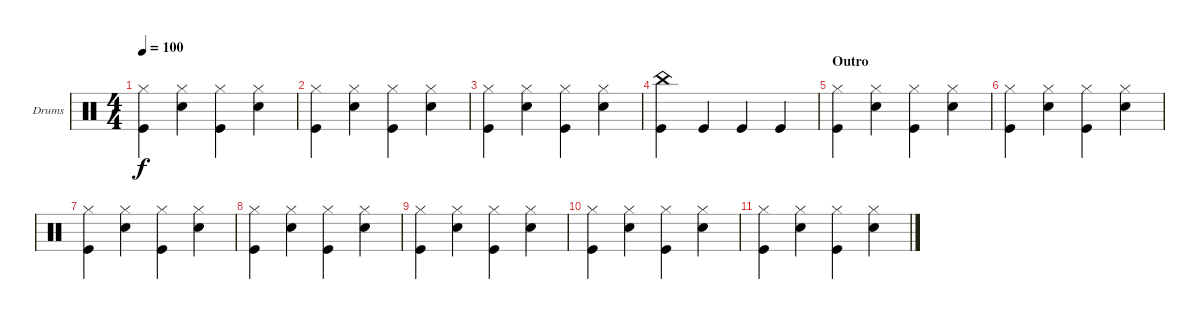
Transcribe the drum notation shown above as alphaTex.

\defaultSystemsLayout 4
\bracketExtendMode groupsimilarinstruments
\firstSystemTrackNameOrientation horizontal
\otherSystemsTrackNameOrientation horizontal
\track ("Drumkit" "Drums") {instrument percussion}
\staff {score}
\articulation defaults
\ts (4 4)
\tempo 100
\clef neutral
\ks c
("Kick (hit)" "Hi-Hat (closed)").4{dy f} ("Snare (hit) 2" "Hi-Hat (closed)").4 ("Hi-Hat (closed)" "Kick (hit)").4 ("Hi-Hat (closed)" "Snare (hit) 2").4 |
("Kick (hit)" "Hi-Hat (closed)").4 ("Snare (hit) 2" "Hi-Hat (closed)").4 ("Hi-Hat (closed)" "Kick (hit)").4 ("Hi-Hat (closed)" "Snare (hit) 2").4 |
("Kick (hit)" "Hi-Hat (closed)").4 ("Snare (hit) 2" "Hi-Hat (closed)").4 ("Hi-Hat (closed)" "Kick (hit)").4 ("Hi-Hat (closed)" "Snare (hit) 2").4 |
("Kick (hit)" "China (hit)").4 "Kick (hit)".4 "Kick (hit)".4 "Kick (hit)".4 |
\section ("" "Outro")
("Kick (hit)" "Hi-Hat (closed)").4 ("Snare (hit) 2" "Hi-Hat (closed)").4 ("Hi-Hat (closed)" "Kick (hit)").4 ("Hi-Hat (closed)" "Snare (hit) 2").4 |
("Kick (hit)" "Hi-Hat (closed)").4 ("Snare (hit) 2" "Hi-Hat (closed)").4 ("Hi-Hat (closed)" "Kick (hit)").4 ("Hi-Hat (closed)" "Snare (hit) 2").4 |
("Kick (hit)" "Hi-Hat (closed)").4 ("Snare (hit) 2" "Hi-Hat (closed)").4 ("Hi-Hat (closed)" "Kick (hit)").4 ("Hi-Hat (closed)" "Snare (hit) 2").4 |
("Kick (hit)" "Hi-Hat (closed)").4 ("Snare (hit) 2" "Hi-Hat (closed)").4 ("Hi-Hat (closed)" "Kick (hit)").4 ("Hi-Hat (closed)" "Snare (hit) 2").4 |
("Kick (hit)" "Hi-Hat (closed)").4 ("Snare (hit) 2" "Hi-Hat (closed)").4 ("Hi-Hat (closed)" "Kick (hit)").4 ("Hi-Hat (closed)" "Snare (hit) 2").4 |
("Kick (hit)" "Hi-Hat (closed)").4 ("Snare (hit) 2" "Hi-Hat (closed)").4 ("Hi-Hat (closed)" "Kick (hit)").4 ("Hi-Hat (closed)" "Snare (hit) 2").4 |
("Kick (hit)" "Hi-Hat (closed)").4 ("Snare (hit) 2" "Hi-Hat (closed)").4 ("Hi-Hat (closed)" "Kick (hit)").4 ("Hi-Hat (closed)" "Snare (hit) 2").4
